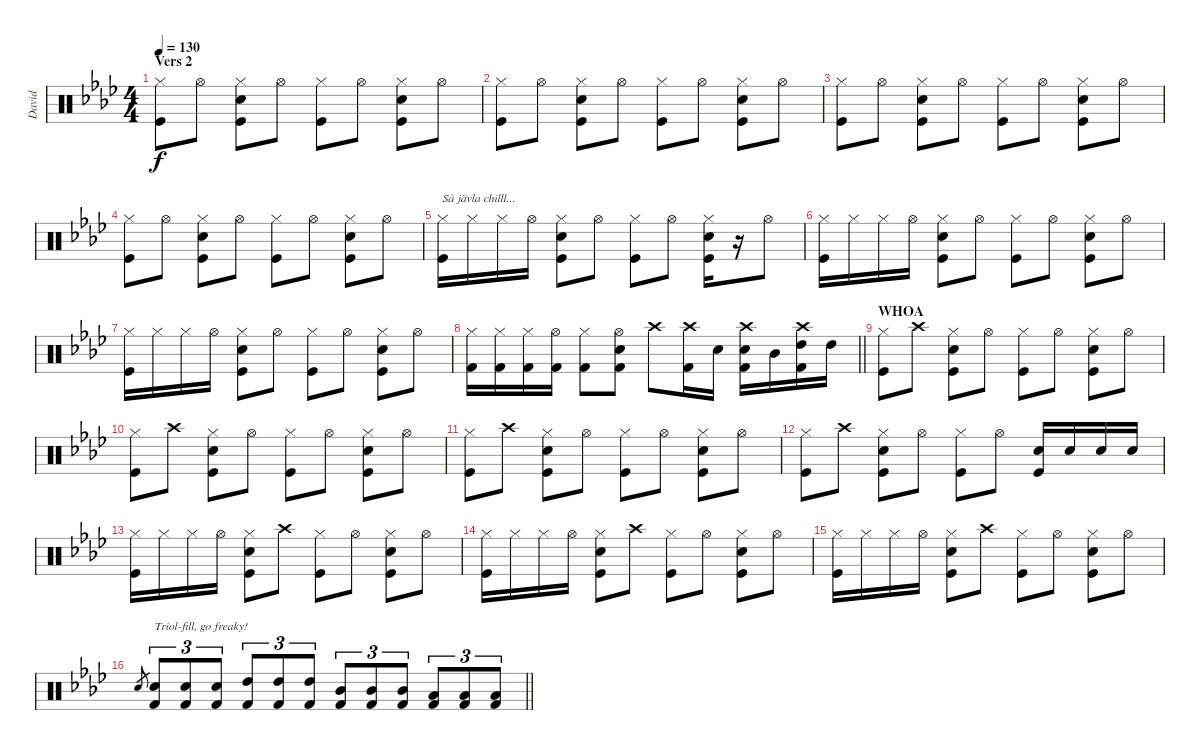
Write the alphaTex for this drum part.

\track ("David" "David") {instrument percussion}
\staff {score}
\articulation defaults
\ts (4 4)
\section ("" "Vers 2")
\tempo 130
\clef neutral
\ks ab
("Hi-Hat (closed)" "Kick (hit)").8{dy f} "Hi-Hat (open)".8 ("Hi-Hat (closed)" "Snare (hit) 2" "Kick (hit)").8 "Hi-Hat (open)".8 ("Hi-Hat (closed)" "Kick (hit)").8 "Hi-Hat (open)".8 ("Hi-Hat (closed)" "Snare (hit) 2" "Kick (hit)").8 "Hi-Hat (open)".8 |
("Hi-Hat (closed)" "Kick (hit)").8 "Hi-Hat (open)".8 ("Hi-Hat (closed)" "Snare (hit) 2" "Kick (hit)").8 "Hi-Hat (open)".8 ("Hi-Hat (closed)" "Kick (hit)").8 "Hi-Hat (open)".8 ("Hi-Hat (closed)" "Snare (hit) 2" "Kick (hit)").8 "Hi-Hat (open)".8 |
("Hi-Hat (closed)" "Kick (hit)").8 "Hi-Hat (open)".8 ("Hi-Hat (closed)" "Snare (hit) 2" "Kick (hit)").8 "Hi-Hat (open)".8 ("Hi-Hat (closed)" "Kick (hit)").8 "Hi-Hat (open)".8 ("Hi-Hat (closed)" "Snare (hit) 2" "Kick (hit)").8 "Hi-Hat (open)".8 |
("Hi-Hat (closed)" "Kick (hit)").8 "Hi-Hat (open)".8 ("Hi-Hat (closed)" "Snare (hit) 2" "Kick (hit)").8 "Hi-Hat (open)".8 ("Hi-Hat (closed)" "Kick (hit)").8 "Hi-Hat (open)".8 ("Hi-Hat (closed)" "Snare (hit) 2" "Kick (hit)").8 "Hi-Hat (open)".8 |
("Hi-Hat (closed)" "Kick (hit)").16{txt "Så jävla chilll..."} "Hi-Hat (closed)".16 "Hi-Hat (closed)".16 "Hi-Hat (open)".16 ("Hi-Hat (closed)" "Snare (hit) 2" "Kick (hit)").8 "Hi-Hat (open)".8 ("Hi-Hat (closed)" "Kick (hit)").8 "Hi-Hat (open)".8 ("Hi-Hat (closed)" "Snare (hit) 2" "Kick (hit)").16 r.16 "Hi-Hat (open)".8 |
("Hi-Hat (closed)" "Kick (hit)").16 "Hi-Hat (closed)".16 "Hi-Hat (closed)".16 "Hi-Hat (open)".16 ("Hi-Hat (closed)" "Snare (hit) 2" "Kick (hit)").8 "Hi-Hat (open)".8 ("Hi-Hat (closed)" "Kick (hit)").8 "Hi-Hat (open)".8 ("Hi-Hat (closed)" "Snare (hit) 2" "Kick (hit)").8 "Hi-Hat (open)".8 |
("Hi-Hat (closed)" "Kick (hit)").16 "Hi-Hat (closed)".16 "Hi-Hat (closed)".16 "Hi-Hat (open)".16 ("Hi-Hat (closed)" "Snare (hit) 2" "Kick (hit)").8 "Hi-Hat (open)".8 ("Hi-Hat (closed)" "Kick (hit)").8 "Hi-Hat (open)".8 ("Hi-Hat (closed)" "Snare (hit) 2" "Kick (hit)").8 "Hi-Hat (open)".8 |
\barLineRight lightlight
("Hi-Hat (closed)" "Kick (hit) 2").16 ("Hi-Hat (closed)" "Kick (hit) 2").16 ("Hi-Hat (closed)" "Kick (hit) 2").16 ("Hi-Hat (open)" "Kick (hit) 2").16 ("Hi-Hat (closed)" "Kick (hit) 2").8 ("Hi-Hat (open)" "Electric Snare (hit)" "Kick (hit) 2").8 "Crash high (hit)".8 ("Crash high (hit)" "Kick (hit) 2").16 "Electric Snare (hit)".16 ("Crash high (hit)" "Electric Snare (hit)" "Kick (hit) 2").16 "Mid Tom (hit)".16 ("Crash high (hit)" "High Tom (hit)" "Kick (hit) 2").16 "High Tom (hit)".16 |
\section ("" "WHOA")
("Hi-Hat (closed)" "Kick (hit)").8 "Crash high (hit)".8 ("Hi-Hat (closed)" "Electric Snare (hit)" "Kick (hit)").8 "Hi-Hat (open)".8 ("Hi-Hat (closed)" "Kick (hit)").8 "Hi-Hat (open)".8 ("Hi-Hat (closed)" "Electric Snare (hit)" "Kick (hit)").8 "Hi-Hat (open)".8 |
("Hi-Hat (closed)" "Kick (hit)").8 "Crash high (hit)".8 ("Hi-Hat (closed)" "Electric Snare (hit)" "Kick (hit)").8 "Hi-Hat (open)".8 ("Hi-Hat (closed)" "Kick (hit)").8 "Hi-Hat (open)".8 ("Hi-Hat (closed)" "Electric Snare (hit)" "Kick (hit)").8 "Hi-Hat (open)".8 |
("Hi-Hat (closed)" "Kick (hit)").8 "Crash high (hit)".8 ("Hi-Hat (closed)" "Electric Snare (hit)" "Kick (hit)").8 "Hi-Hat (open)".8 ("Hi-Hat (closed)" "Kick (hit)").8 "Hi-Hat (open)".8 ("Hi-Hat (closed)" "Electric Snare (hit)" "Kick (hit)").8 "Hi-Hat (open)".8 |
("Hi-Hat (closed)" "Kick (hit)").8 "Crash high (hit)".8 ("Hi-Hat (closed)" "Electric Snare (hit)" "Kick (hit)").8 "Hi-Hat (open)".8 ("Hi-Hat (closed)" "Kick (hit)").8 "Hi-Hat (open)".8 ("Electric Snare (hit)" "Kick (hit)").16 "Electric Snare (hit)".16 "Electric Snare (hit)".16 "Electric Snare (hit)".16 |
("Hi-Hat (closed)" "Kick (hit)").16 "Hi-Hat (closed)".16 "Hi-Hat (closed)".16 "Hi-Hat (open)".16 ("Hi-Hat (closed)" "Snare (hit) 2" "Kick (hit)").8 "Crash high (hit)".8 ("Hi-Hat (closed)" "Kick (hit)").8 "Hi-Hat (open)".8 ("Hi-Hat (closed)" "Snare (hit) 2" "Kick (hit)").8 "Hi-Hat (open)".8 |
("Hi-Hat (closed)" "Kick (hit)").16 "Hi-Hat (closed)".16 "Hi-Hat (closed)".16 "Hi-Hat (open)".16 ("Hi-Hat (closed)" "Snare (hit) 2" "Kick (hit)").8 "Crash high (hit)".8 ("Hi-Hat (closed)" "Kick (hit)").8 "Hi-Hat (open)".8 ("Hi-Hat (closed)" "Snare (hit) 2" "Kick (hit)").8 "Hi-Hat (open)".8 |
("Hi-Hat (closed)" "Kick (hit)").16 "Hi-Hat (closed)".16 "Hi-Hat (closed)".16 "Hi-Hat (open)".16 ("Hi-Hat (closed)" "Snare (hit) 2" "Kick (hit)").8 "Crash high (hit)".8 ("Hi-Hat (closed)" "Kick (hit)").8 "Hi-Hat (open)".8 ("Hi-Hat (closed)" "Snare (hit) 2" "Kick (hit)").8 "Hi-Hat (open)".8 |
\barLineRight lightlight "Electric Snare (hit)".8{gr}
("Electric Snare (hit)" "Kick (hit) 2").8{tu (3 2) txt "Triol-fill, go freaky!"} ("Electric Snare (hit)" "Kick (hit) 2").8{tu (3 2)} ("Electric Snare (hit)" "Kick (hit) 2").8{tu (3 2)} ("High Tom (hit)" "Kick (hit) 2").8{tu (3 2)} ("High Tom (hit)" "Kick (hit) 2").8{tu (3 2)} ("High Tom (hit)" "Kick (hit) 2").8{tu (3 2)} ("Mid Tom (hit)" "Kick (hit) 2").8{tu (3 2)} ("Mid Tom (hit)" "Kick (hit) 2").8{tu (3 2)} ("Mid Tom (hit)" "Kick (hit) 2").8{tu (3 2)} ("Low Tom (hit)" "Kick (hit) 2").8{tu (3 2)} ("Low Tom (hit)" "Kick (hit) 2").8{tu (3 2)} ("Low Tom (hit)" "Kick (hit) 2").8{tu (3 2)}
